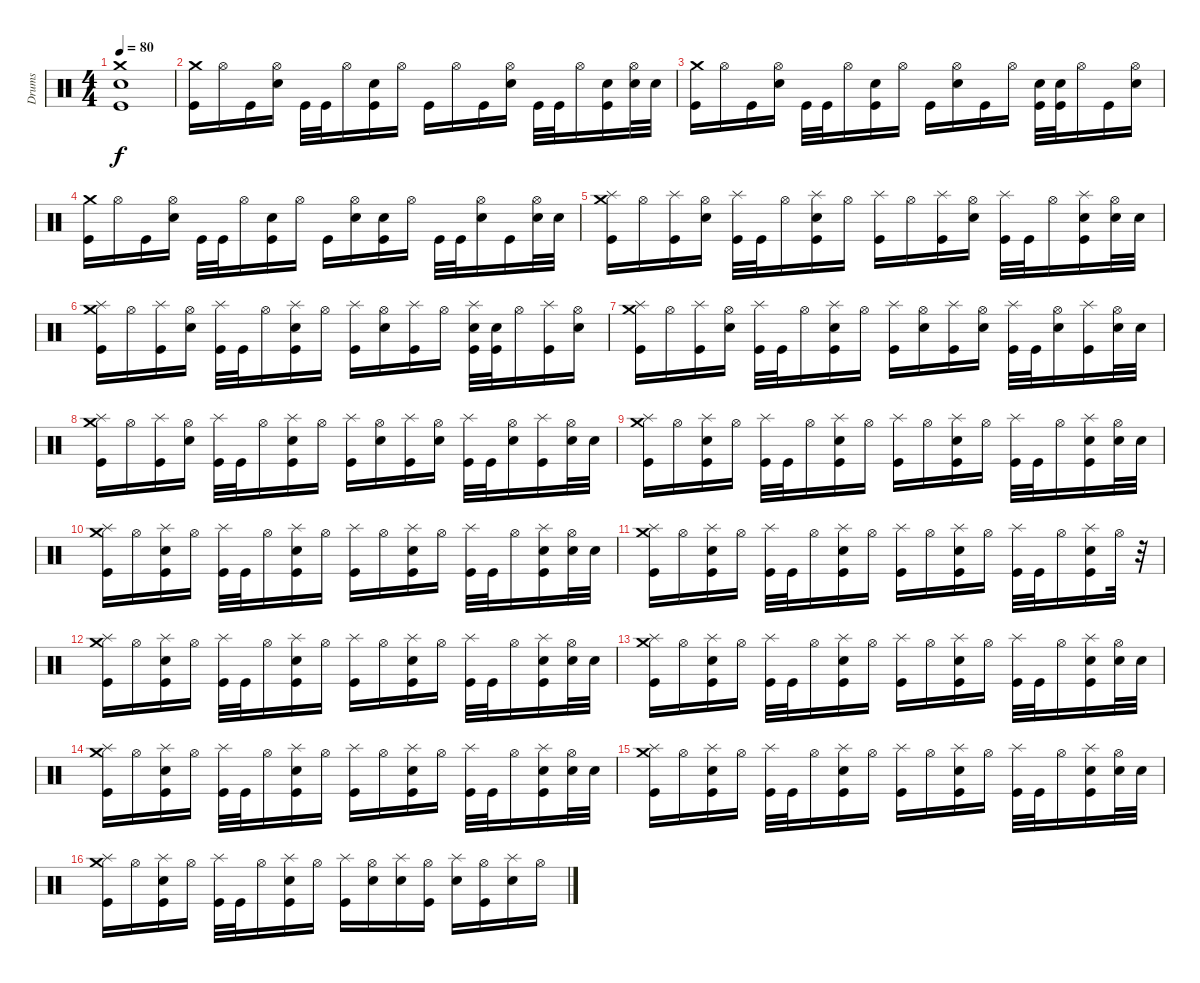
\track ("Drums" "Drums") {instrument percussion}
\staff {score}
\articulation defaults
\ts (4 4)
\tempo 80
\clef neutral
\ks c
("Crash medium (hit)" "Electric Snare (hit)" "Kick (hit)").1{dy f} |
("Crash medium (hit)" "Kick (hit)").16 "Hi-Hat (open)".16 "Kick (hit)".16 ("Hi-Hat (open)" "Electric Snare (hit)").16 "Kick (hit)".32 "Kick (hit)".32 "Hi-Hat (open)".16 ("Electric Snare (hit)" "Kick (hit)").16 "Hi-Hat (open)".16 "Kick (hit)".16 "Hi-Hat (open)".16 "Kick (hit)".16 ("Hi-Hat (open)" "Electric Snare (hit)").16 "Kick (hit)".32 "Kick (hit)".32 "Hi-Hat (open)".16 ("Electric Snare (hit)" "Kick (hit)").16 ("Hi-Hat (open)" "Electric Snare (hit)").32 "Electric Snare (hit)".32 |
("Crash medium (hit)" "Kick (hit)").16 "Hi-Hat (open)".16 "Kick (hit)".16 ("Hi-Hat (open)" "Electric Snare (hit)").16 "Kick (hit)".32 "Kick (hit)".32 "Hi-Hat (open)".16 ("Electric Snare (hit)" "Kick (hit)").16 "Hi-Hat (open)".16 "Kick (hit)".16 ("Hi-Hat (open)" "Electric Snare (hit)").16 "Kick (hit)".16 "Hi-Hat (open)".16 ("Electric Snare (hit)" "Kick (hit)").32 ("Electric Snare (hit)" "Kick (hit)").32 "Hi-Hat (open)".16 "Kick (hit)".16 ("Hi-Hat (open)" "Electric Snare (hit)").16 |
("Crash medium (hit)" "Kick (hit)").16 "Hi-Hat (open)".16 "Kick (hit)".16 ("Hi-Hat (open)" "Electric Snare (hit)").16 "Kick (hit)".32 "Kick (hit)".32 "Hi-Hat (open)".16 ("Electric Snare (hit)" "Kick (hit)").16 "Hi-Hat (open)".16 "Kick (hit)".16 ("Hi-Hat (open)" "Electric Snare (hit)").16 ("Electric Snare (hit)" "Kick (hit)").16 "Hi-Hat (open)".16 "Kick (hit)".32 "Kick (hit)".32 ("Hi-Hat (open)" "Electric Snare (hit)").16 "Kick (hit)".16 ("Hi-Hat (open)" "Electric Snare (hit)").32 "Electric Snare (hit)".32 |
("Crash medium (hit)" "Splash (hit)" "Kick (hit)").16 "Hi-Hat (open)".16 ("Splash (hit)" "Kick (hit)").16 ("Hi-Hat (open)" "Electric Snare (hit)").16 ("Splash (hit)" "Kick (hit)").32 "Kick (hit)".32 "Hi-Hat (open)".16 ("Splash (hit)" "Electric Snare (hit)" "Kick (hit)").16 "Hi-Hat (open)".16 ("Splash (hit)" "Kick (hit)").16 "Hi-Hat (open)".16 ("Splash (hit)" "Kick (hit)").16 ("Hi-Hat (open)" "Electric Snare (hit)").16 ("Splash (hit)" "Kick (hit)").32 "Kick (hit)".32 "Hi-Hat (open)".16 ("Splash (hit)" "Electric Snare (hit)" "Kick (hit)").16 ("Hi-Hat (open)" "Electric Snare (hit)").32 "Electric Snare (hit)".32 |
("Crash medium (hit)" "Splash (hit)" "Kick (hit)").16 "Hi-Hat (open)".16 ("Splash (hit)" "Kick (hit)").16 ("Hi-Hat (open)" "Electric Snare (hit)").16 ("Splash (hit)" "Kick (hit)").32 "Kick (hit)".32 "Hi-Hat (open)".16 ("Splash (hit)" "Electric Snare (hit)" "Kick (hit)").16 "Hi-Hat (open)".16 ("Splash (hit)" "Kick (hit)").16 ("Hi-Hat (open)" "Electric Snare (hit)").16 ("Splash (hit)" "Kick (hit)").16 "Hi-Hat (open)".16 ("Splash (hit)" "Electric Snare (hit)" "Kick (hit)").32 ("Electric Snare (hit)" "Kick (hit)").32 "Hi-Hat (open)".16 ("Splash (hit)" "Kick (hit)").16 ("Hi-Hat (open)" "Electric Snare (hit)").16 |
("Crash medium (hit)" "Splash (hit)" "Kick (hit)").16 "Hi-Hat (open)".16 ("Splash (hit)" "Kick (hit)").16 ("Hi-Hat (open)" "Electric Snare (hit)").16 ("Splash (hit)" "Kick (hit)").32 "Kick (hit)".32 "Hi-Hat (open)".16 ("Splash (hit)" "Electric Snare (hit)" "Kick (hit)").16 "Hi-Hat (open)".16 ("Splash (hit)" "Kick (hit)").16 ("Hi-Hat (open)" "Electric Snare (hit)").16 ("Splash (hit)" "Kick (hit)").16 ("Hi-Hat (open)" "Electric Snare (hit)").16 ("Splash (hit)" "Kick (hit)").32 "Kick (hit)".32 ("Hi-Hat (open)" "Electric Snare (hit)").16 ("Splash (hit)" "Kick (hit)").16 ("Hi-Hat (open)" "Electric Snare (hit)").32 "Electric Snare (hit)".32 |
("Crash medium (hit)" "Splash (hit)" "Kick (hit)").16 "Hi-Hat (open)".16 ("Splash (hit)" "Kick (hit)").16 ("Hi-Hat (open)" "Electric Snare (hit)").16 ("Splash (hit)" "Kick (hit)").32 "Kick (hit)".32 "Hi-Hat (open)".16 ("Splash (hit)" "Electric Snare (hit)" "Kick (hit)").16 "Hi-Hat (open)".16 ("Splash (hit)" "Kick (hit)").16 ("Hi-Hat (open)" "Electric Snare (hit)").16 ("Splash (hit)" "Kick (hit)").16 ("Hi-Hat (open)" "Electric Snare (hit)").16 ("Splash (hit)" "Kick (hit)").32 "Kick (hit)".32 ("Hi-Hat (open)" "Electric Snare (hit)").16 ("Splash (hit)" "Kick (hit)").16 ("Hi-Hat (open)" "Electric Snare (hit)").32 "Electric Snare (hit)".32 |
("Crash medium (hit)" "Splash (hit)" "Kick (hit)").16 "Hi-Hat (open)".16 ("Splash (hit)" "Electric Snare (hit)" "Kick (hit)").16 "Hi-Hat (open)".16 ("Splash (hit)" "Kick (hit)").32 "Kick (hit)".32 "Hi-Hat (open)".16 ("Splash (hit)" "Electric Snare (hit)" "Kick (hit)").16 "Hi-Hat (open)".16 ("Splash (hit)" "Kick (hit)").16 "Hi-Hat (open)".16 ("Splash (hit)" "Electric Snare (hit)" "Kick (hit)").16 "Hi-Hat (open)".16 ("Splash (hit)" "Kick (hit)").32 "Kick (hit)".32 "Hi-Hat (open)".16 ("Splash (hit)" "Electric Snare (hit)" "Kick (hit)").16 ("Hi-Hat (open)" "Electric Snare (hit)").32 "Electric Snare (hit)".32 |
("Crash medium (hit)" "Splash (hit)" "Kick (hit)").16 "Hi-Hat (open)".16 ("Splash (hit)" "Electric Snare (hit)" "Kick (hit)").16 "Hi-Hat (open)".16 ("Splash (hit)" "Kick (hit)").32 "Kick (hit)".32 "Hi-Hat (open)".16 ("Splash (hit)" "Electric Snare (hit)" "Kick (hit)").16 "Hi-Hat (open)".16 ("Splash (hit)" "Kick (hit)").16 "Hi-Hat (open)".16 ("Splash (hit)" "Electric Snare (hit)" "Kick (hit)").16 "Hi-Hat (open)".16 ("Splash (hit)" "Kick (hit)").32 "Kick (hit)".32 "Hi-Hat (open)".16 ("Splash (hit)" "Electric Snare (hit)" "Kick (hit)").16 ("Hi-Hat (open)" "Electric Snare (hit)").32 "Electric Snare (hit)".32 |
("Crash medium (hit)" "Splash (hit)" "Kick (hit)").16 "Hi-Hat (open)".16 ("Splash (hit)" "Electric Snare (hit)" "Kick (hit)").16 "Hi-Hat (open)".16 ("Splash (hit)" "Kick (hit)").32 "Kick (hit)".32 "Hi-Hat (open)".16 ("Splash (hit)" "Electric Snare (hit)" "Kick (hit)").16 "Hi-Hat (open)".16 ("Splash (hit)" "Kick (hit)").16 "Hi-Hat (open)".16 ("Splash (hit)" "Electric Snare (hit)" "Kick (hit)").16 "Hi-Hat (open)".16 ("Splash (hit)" "Kick (hit)").32 "Kick (hit)".32 "Hi-Hat (open)".16 ("Splash (hit)" "Electric Snare (hit)" "Kick (hit)").16 "Hi-Hat (open)".32 r.32 |
("Crash medium (hit)" "Splash (hit)" "Kick (hit)").16 "Hi-Hat (open)".16 ("Splash (hit)" "Electric Snare (hit)" "Kick (hit)").16 "Hi-Hat (open)".16 ("Splash (hit)" "Kick (hit)").32 "Kick (hit)".32 "Hi-Hat (open)".16 ("Splash (hit)" "Electric Snare (hit)" "Kick (hit)").16 "Hi-Hat (open)".16 ("Splash (hit)" "Kick (hit)").16 "Hi-Hat (open)".16 ("Splash (hit)" "Electric Snare (hit)" "Kick (hit)").16 "Hi-Hat (open)".16 ("Splash (hit)" "Kick (hit)").32 "Kick (hit)".32 "Hi-Hat (open)".16 ("Splash (hit)" "Electric Snare (hit)" "Kick (hit)").16 ("Hi-Hat (open)" "Electric Snare (hit)").32 "Electric Snare (hit)".32 |
("Crash medium (hit)" "Splash (hit)" "Kick (hit)").16 "Hi-Hat (open)".16 ("Splash (hit)" "Electric Snare (hit)" "Kick (hit)").16 "Hi-Hat (open)".16 ("Splash (hit)" "Kick (hit)").32 "Kick (hit)".32 "Hi-Hat (open)".16 ("Splash (hit)" "Electric Snare (hit)" "Kick (hit)").16 "Hi-Hat (open)".16 ("Splash (hit)" "Kick (hit)").16 "Hi-Hat (open)".16 ("Splash (hit)" "Electric Snare (hit)" "Kick (hit)").16 "Hi-Hat (open)".16 ("Splash (hit)" "Kick (hit)").32 "Kick (hit)".32 "Hi-Hat (open)".16 ("Splash (hit)" "Electric Snare (hit)" "Kick (hit)").16 ("Hi-Hat (open)" "Electric Snare (hit)").32 "Electric Snare (hit)".32 |
("Crash medium (hit)" "Splash (hit)" "Kick (hit)").16 "Hi-Hat (open)".16 ("Splash (hit)" "Electric Snare (hit)" "Kick (hit)").16 "Hi-Hat (open)".16 ("Splash (hit)" "Kick (hit)").32 "Kick (hit)".32 "Hi-Hat (open)".16 ("Splash (hit)" "Electric Snare (hit)" "Kick (hit)").16 "Hi-Hat (open)".16 ("Splash (hit)" "Kick (hit)").16 "Hi-Hat (open)".16 ("Splash (hit)" "Electric Snare (hit)" "Kick (hit)").16 "Hi-Hat (open)".16 ("Splash (hit)" "Kick (hit)").32 "Kick (hit)".32 "Hi-Hat (open)".16 ("Splash (hit)" "Electric Snare (hit)" "Kick (hit)").16 ("Hi-Hat (open)" "Electric Snare (hit)").32 "Electric Snare (hit)".32 |
("Crash medium (hit)" "Splash (hit)" "Kick (hit)").16 "Hi-Hat (open)".16 ("Splash (hit)" "Electric Snare (hit)" "Kick (hit)").16 "Hi-Hat (open)".16 ("Splash (hit)" "Kick (hit)").32 "Kick (hit)".32 "Hi-Hat (open)".16 ("Splash (hit)" "Electric Snare (hit)" "Kick (hit)").16 "Hi-Hat (open)".16 ("Splash (hit)" "Kick (hit)").16 "Hi-Hat (open)".16 ("Splash (hit)" "Electric Snare (hit)" "Kick (hit)").16 "Hi-Hat (open)".16 ("Splash (hit)" "Kick (hit)").32 "Kick (hit)".32 "Hi-Hat (open)".16 ("Splash (hit)" "Electric Snare (hit)" "Kick (hit)").16 ("Hi-Hat (open)" "Electric Snare (hit)").32 "Electric Snare (hit)".32 |
("Crash medium (hit)" "Splash (hit)" "Kick (hit)").16 "Hi-Hat (open)".16 ("Splash (hit)" "Electric Snare (hit)" "Kick (hit)").16 "Hi-Hat (open)".16 ("Splash (hit)" "Kick (hit)").32 "Kick (hit)".32 "Hi-Hat (open)".16 ("Splash (hit)" "Electric Snare (hit)" "Kick (hit)").16 "Hi-Hat (open)".16 ("Splash (hit)" "Kick (hit)").16 ("Hi-Hat (open)" "Electric Snare (hit)").16 ("Splash (hit)" "Electric Snare (hit)").16 ("Hi-Hat (open)" "Kick (hit)").16 ("Splash (hit)" "Electric Snare (hit)").16 ("Hi-Hat (open)" "Kick (hit)").16 ("Splash (hit)" "Electric Snare (hit)").16 "Hi-Hat (open)".16
